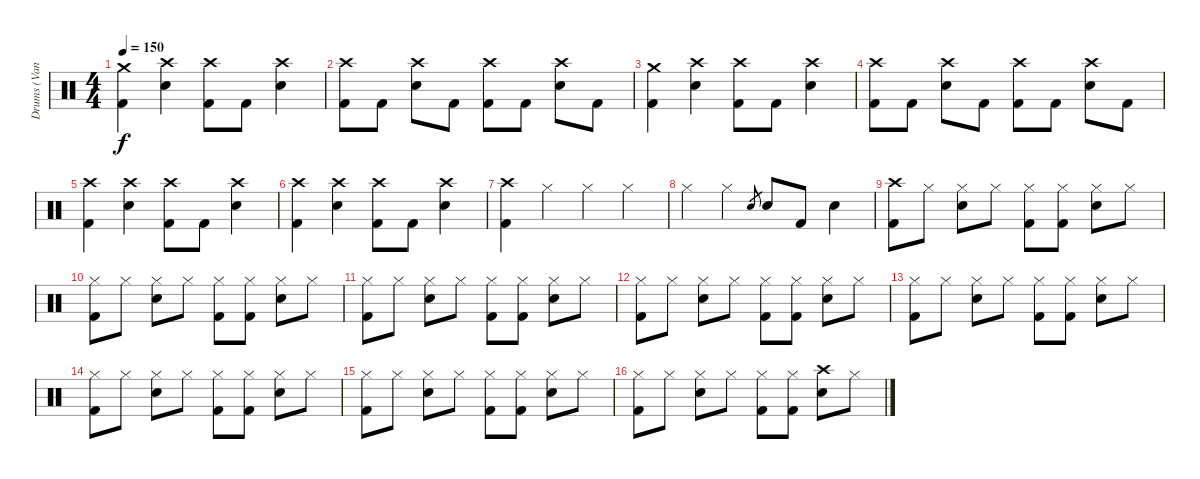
\track ("Drums (Vandel)" "Drums (Van") {instrument percussion}
\staff {score}
\articulation defaults
\ts (4 4)
\tempo 150
\clef neutral
\ks c
("Crash medium (hit)" "Kick (hit) 2").4{dy f} ("Crash high (hit)" "Snare (hit) 2").4 ("Crash high (hit)" "Kick (hit) 2").8 "Kick (hit) 2".8 ("Crash high (hit)" "Snare (hit) 2").4 |
("Crash high (hit)" "Kick (hit) 2").8 "Kick (hit) 2".8 ("Crash high (hit)" "Snare (hit) 2").8 "Kick (hit) 2".8 ("Crash high (hit)" "Kick (hit) 2").8 "Kick (hit) 2".8 ("Crash high (hit)" "Snare (hit) 2").8 "Kick (hit) 2".8 |
("Crash medium (hit)" "Kick (hit) 2").4 ("Crash high (hit)" "Snare (hit) 2").4 ("Crash high (hit)" "Kick (hit) 2").8 "Kick (hit) 2".8 ("Crash high (hit)" "Snare (hit) 2").4 |
("Crash high (hit)" "Kick (hit) 2").8 "Kick (hit) 2".8 ("Crash high (hit)" "Snare (hit) 2").8 "Kick (hit) 2".8 ("Crash high (hit)" "Kick (hit) 2").8 "Kick (hit) 2".8 ("Crash high (hit)" "Snare (hit) 2").8 "Kick (hit) 2".8 |
("Crash high (hit)" "Kick (hit) 2").4 ("Crash high (hit)" "Snare (hit) 2").4 ("Crash high (hit)" "Kick (hit) 2").8 "Kick (hit) 2".8 ("Crash high (hit)" "Snare (hit) 2").4 |
("Crash high (hit)" "Kick (hit) 2").4 ("Crash high (hit)" "Snare (hit) 2").4 ("Crash high (hit)" "Kick (hit) 2").8 "Kick (hit) 2".8 ("Crash high (hit)" "Snare (hit) 2").4 |
("Crash high (hit)" "Kick (hit) 2").4 "Hi-Hat (closed)".4 "Hi-Hat (closed)".4 "Hi-Hat (closed)".4 |
"Hi-Hat (closed)".4 "Hi-Hat (closed)".4 "Snare (hit) 2".8{gr} "Snare (hit) 2".8 "Kick (hit) 2".8 "Snare (hit) 2".4 |
("Crash high (hit)" "Kick (hit) 2").8 "Hi-Hat (closed)".8 ("Hi-Hat (closed)" "Snare (hit) 2").8 "Hi-Hat (closed)".8 ("Hi-Hat (closed)" "Kick (hit) 2").8 ("Hi-Hat (closed)" "Kick (hit) 2").8 ("Hi-Hat (closed)" "Snare (hit) 2").8 "Hi-Hat (closed)".8 |
("Hi-Hat (closed)" "Kick (hit) 2").8 "Hi-Hat (closed)".8 ("Hi-Hat (closed)" "Snare (hit) 2").8 "Hi-Hat (closed)".8 ("Hi-Hat (closed)" "Kick (hit) 2").8 ("Hi-Hat (closed)" "Kick (hit) 2").8 ("Hi-Hat (closed)" "Snare (hit) 2").8 "Hi-Hat (closed)".8 |
("Hi-Hat (closed)" "Kick (hit) 2").8 "Hi-Hat (closed)".8 ("Hi-Hat (closed)" "Snare (hit) 2").8 "Hi-Hat (closed)".8 ("Hi-Hat (closed)" "Kick (hit) 2").8 ("Hi-Hat (closed)" "Kick (hit) 2").8 ("Hi-Hat (closed)" "Snare (hit) 2").8 "Hi-Hat (closed)".8 |
("Hi-Hat (closed)" "Kick (hit) 2").8 "Hi-Hat (closed)".8 ("Hi-Hat (closed)" "Snare (hit) 2").8 "Hi-Hat (closed)".8 ("Hi-Hat (closed)" "Kick (hit) 2").8 ("Hi-Hat (closed)" "Kick (hit) 2").8 ("Hi-Hat (closed)" "Snare (hit) 2").8 "Hi-Hat (closed)".8 |
("Hi-Hat (closed)" "Kick (hit) 2").8 "Hi-Hat (closed)".8 ("Hi-Hat (closed)" "Snare (hit) 2").8 "Hi-Hat (closed)".8 ("Hi-Hat (closed)" "Kick (hit) 2").8 ("Hi-Hat (closed)" "Kick (hit) 2").8 ("Hi-Hat (closed)" "Snare (hit) 2").8 "Hi-Hat (closed)".8 |
("Hi-Hat (closed)" "Kick (hit) 2").8 "Hi-Hat (closed)".8 ("Hi-Hat (closed)" "Snare (hit) 2").8 "Hi-Hat (closed)".8 ("Hi-Hat (closed)" "Kick (hit) 2").8 ("Hi-Hat (closed)" "Kick (hit) 2").8 ("Hi-Hat (closed)" "Snare (hit) 2").8 "Hi-Hat (closed)".8 |
("Hi-Hat (closed)" "Kick (hit) 2").8 "Hi-Hat (closed)".8 ("Hi-Hat (closed)" "Snare (hit) 2").8 "Hi-Hat (closed)".8 ("Hi-Hat (closed)" "Kick (hit) 2").8 ("Hi-Hat (closed)" "Kick (hit) 2").8 ("Hi-Hat (closed)" "Snare (hit) 2").8 "Hi-Hat (closed)".8 |
("Hi-Hat (closed)" "Kick (hit) 2").8 "Hi-Hat (closed)".8 ("Hi-Hat (closed)" "Snare (hit) 2").8 "Hi-Hat (closed)".8 ("Hi-Hat (closed)" "Kick (hit) 2").8 ("Hi-Hat (closed)" "Kick (hit) 2").8 ("Crash high (hit)" "Snare (hit) 2").8 "Hi-Hat (closed)".8
